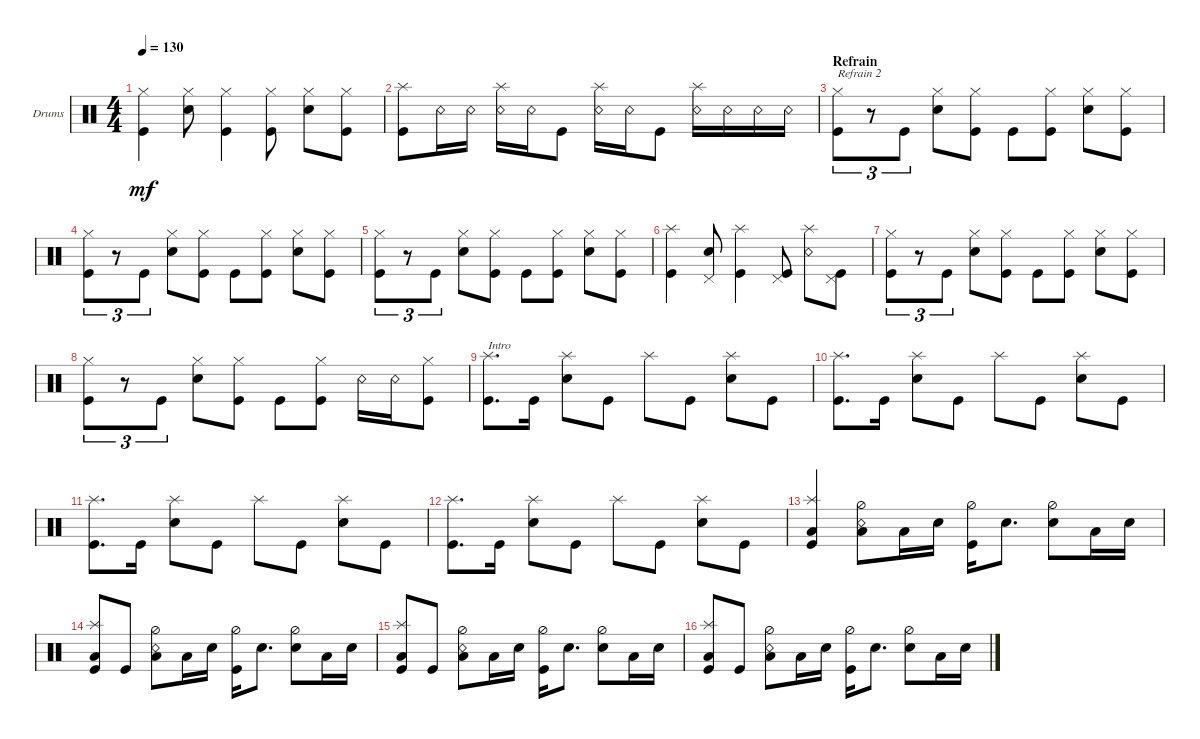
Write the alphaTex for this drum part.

\defaultSystemsLayout 4
\bracketExtendMode groupsimilarinstruments
\firstSystemTrackNameOrientation horizontal
\otherSystemsTrackNameOrientation horizontal
\track ("Drumkit" "Drums") {instrument percussion}
\staff {score}
\articulation defaults
\ts (4 4)
\tempo 130
\clef neutral
\ks c
("Kick (hit)" "Hi-Hat (closed)").4{dy mf} ("Snare (hit) 2" "Hi-Hat (closed)").8 ("Kick (hit)" "Hi-Hat (closed)").4 ("Kick (hit)" "Hi-Hat (closed)").8 ("Snare (hit) 2" "Hi-Hat (closed)").8 ("Kick (hit)" "Hi-Hat (closed)").8 |
("Kick (hit)" "Splash (hit)").8 "Snare (rim shot)".16 "Snare (rim shot)".16 ("Snare (rim shot)" "Splash (hit)").16 "Snare (rim shot)".16 "Kick (hit)".8 ("Snare (rim shot)" "Splash (hit)").16 "Snare (rim shot)".16 "Kick (hit)".8 ("Snare (rim shot)" "Splash (hit)").16 "Snare (rim shot)".16 "Snare (rim shot)".16 "Snare (rim shot)".16 |
\section ("" "Refrain")
("Kick (hit)" "Hi-Hat (closed)").8{tu (3 2) txt "Refrain 2"} r.8{tu (3 2)} "Kick (hit)".8{tu (3 2)} ("Snare (hit) 2" "Hi-Hat (closed)").8 ("Kick (hit)" "Hi-Hat (closed)").8 "Kick (hit)".8 ("Kick (hit)" "Hi-Hat (closed)").8 ("Snare (hit) 2" "Hi-Hat (closed)").8 ("Kick (hit)" "Hi-Hat (closed)").8 |
("Kick (hit)" "Hi-Hat (closed)").8{tu (3 2)} r.8{tu (3 2)} "Kick (hit)".8{tu (3 2)} ("Snare (hit) 2" "Hi-Hat (closed)").8 ("Kick (hit)" "Hi-Hat (closed)").8 "Kick (hit)".8 ("Kick (hit)" "Hi-Hat (closed)").8 ("Snare (hit) 2" "Hi-Hat (closed)").8 ("Kick (hit)" "Hi-Hat (closed)").8 |
("Kick (hit)" "Hi-Hat (closed)").8{tu (3 2)} r.8{tu (3 2)} "Kick (hit)".8{tu (3 2)} ("Snare (hit) 2" "Hi-Hat (closed)").8 ("Kick (hit)" "Hi-Hat (closed)").8 "Kick (hit)".8 ("Kick (hit)" "Hi-Hat (closed)").8 ("Snare (hit) 2" "Hi-Hat (closed)").8 ("Kick (hit)" "Hi-Hat (closed)").8 |
("Kick (hit)" "Splash (hit)").4 ("Snare (hit) 2" "Pedal Hi-Hat (hit)").8 ("Kick (hit)" "Splash (hit)").4 ("Kick (hit)" "Pedal Hi-Hat (hit)").8 ("Snare (rim shot)" "Splash (hit)").8 ("Kick (hit)" "Pedal Hi-Hat (hit)").8 |
("Kick (hit)" "Hi-Hat (closed)").8{tu (3 2)} r.8{tu (3 2)} "Kick (hit)".8{tu (3 2)} ("Snare (hit) 2" "Hi-Hat (closed)").8 ("Kick (hit)" "Hi-Hat (closed)").8 "Kick (hit)".8 ("Kick (hit)" "Hi-Hat (closed)").8 ("Snare (hit) 2" "Hi-Hat (closed)").8 ("Kick (hit)" "Hi-Hat (closed)").8 |
("Kick (hit)" "Hi-Hat (closed)").8{tu (3 2)} r.8{tu (3 2)} "Kick (hit)".8{tu (3 2)} ("Snare (hit) 2" "Hi-Hat (closed)").8 ("Kick (hit)" "Hi-Hat (closed)").8 "Kick (hit)".8 ("Kick (hit)" "Hi-Hat (closed)").8 "Snare (rim shot)".16 "Snare (rim shot)".16 ("Kick (hit)" "Hi-Hat (closed)").8 |
("Kick (hit)" "Splash (hit)").8{d txt "Intro"} "Kick (hit)".16 ("Snare (hit) 2" "Splash (hit)").8 "Kick (hit)".8 "Splash (hit)".8 "Kick (hit)".8 ("Snare (hit) 2" "Splash (hit)").8 "Kick (hit)".8 |
("Kick (hit)" "Splash (hit)").8{d} "Kick (hit)".16 ("Snare (hit) 2" "Splash (hit)").8 "Kick (hit)".8 "Splash (hit)".8 "Kick (hit)".8 ("Snare (hit) 2" "Splash (hit)").8 "Kick (hit)".8 |
("Kick (hit)" "Splash (hit)").8{d} "Kick (hit)".16 ("Snare (hit) 2" "Splash (hit)").8 "Kick (hit)".8 "Splash (hit)".8 "Kick (hit)".8 ("Snare (hit) 2" "Splash (hit)").8 "Kick (hit)".8 |
("Kick (hit)" "Splash (hit)").8{d} "Kick (hit)".16 ("Snare (hit) 2" "Splash (hit)").8 "Kick (hit)".8 "Splash (hit)".8 "Kick (hit)".8 ("Snare (hit) 2" "Splash (hit)").8 "Kick (hit)".8 |
("Low Tom (hit)" "Kick (hit)" "Splash (hit)").4 ("Low Tom (hit)" "Snare (rim shot)" "Hi-Hat (half)").8 "Low Tom (hit)".16 "Snare (hit) 2".16 ("Kick (hit)" "Hi-Hat (half)").16 "Snare (hit) 2".8{d} ("Hi-Hat (half)" "Snare (hit) 2").8 "Low Tom (hit)".16 "Snare (hit) 2".16 |
("Low Tom (hit)" "Kick (hit)" "Splash (hit)").8 "Kick (hit)".8 ("Low Tom (hit)" "Snare (rim shot)" "Hi-Hat (half)").8 "Low Tom (hit)".16 "Snare (hit) 2".16 ("Kick (hit)" "Hi-Hat (half)").16 "Snare (hit) 2".8{d} ("Hi-Hat (half)" "Snare (hit) 2").8 "Low Tom (hit)".16 "Snare (hit) 2".16 |
("Low Tom (hit)" "Kick (hit)" "Splash (hit)").8 "Kick (hit)".8 ("Low Tom (hit)" "Snare (rim shot)" "Hi-Hat (half)").8 "Low Tom (hit)".16 "Snare (hit) 2".16 ("Kick (hit)" "Hi-Hat (half)").16 "Snare (hit) 2".8{d} ("Hi-Hat (half)" "Snare (hit) 2").8 "Low Tom (hit)".16 "Snare (hit) 2".16 |
("Low Tom (hit)" "Kick (hit)" "Splash (hit)").8 "Kick (hit)".8 ("Low Tom (hit)" "Snare (rim shot)" "Hi-Hat (half)").8 "Low Tom (hit)".16 "Snare (hit) 2".16 ("Kick (hit)" "Hi-Hat (half)").16 "Snare (hit) 2".8{d} ("Hi-Hat (half)" "Snare (hit) 2").8 "Low Tom (hit)".16 "Snare (hit) 2".16
